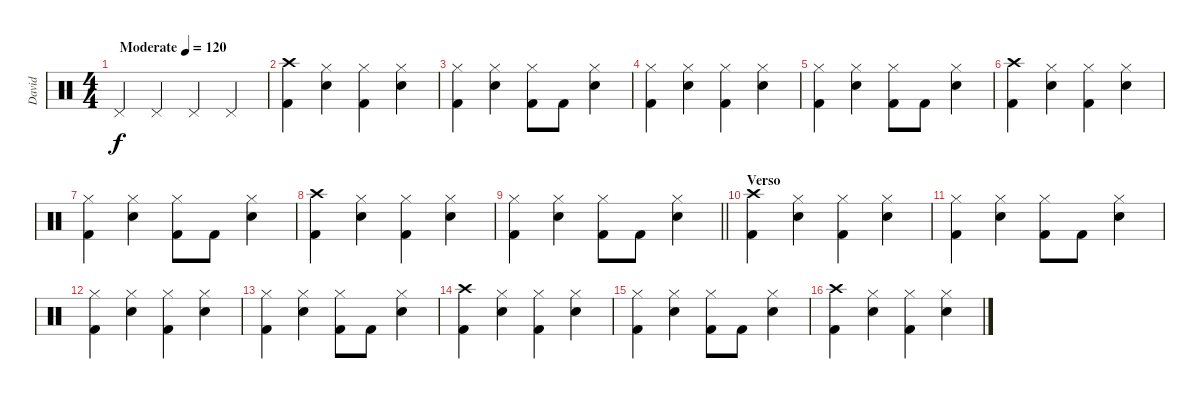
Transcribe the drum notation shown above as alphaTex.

\track ("David" "David") {instrument percussion}
\staff {score}
\articulation defaults
\ts (4 4)
\tempo (120 "Moderate")
\clef neutral
\ks c "Pedal Hi-Hat (hit)".4{dy f} "Pedal Hi-Hat (hit)".4 "Pedal Hi-Hat (hit)".4 "Pedal Hi-Hat (hit)".4
|
("Crash high (hit)" "Kick (hit) 2").4 ("Hi-Hat (closed)" "Snare (hit) 2").4 ("Hi-Hat (closed)" "Kick (hit) 2").4 ("Hi-Hat (closed)" "Snare (hit) 2").4 |
("Hi-Hat (closed)" "Kick (hit) 2").4 ("Hi-Hat (closed)" "Snare (hit) 2").4 ("Hi-Hat (closed)" "Kick (hit) 2").8 "Kick (hit) 2".8 ("Hi-Hat (closed)" "Snare (hit) 2").4 |
("Hi-Hat (closed)" "Kick (hit) 2").4 ("Hi-Hat (closed)" "Snare (hit) 2").4 ("Hi-Hat (closed)" "Kick (hit) 2").4 ("Hi-Hat (closed)" "Snare (hit) 2").4 |
("Hi-Hat (closed)" "Kick (hit) 2").4 ("Hi-Hat (closed)" "Snare (hit) 2").4 ("Hi-Hat (closed)" "Kick (hit) 2").8 "Kick (hit) 2".8 ("Hi-Hat (closed)" "Snare (hit) 2").4 |
("Crash high (hit)" "Kick (hit) 2").4 ("Hi-Hat (closed)" "Snare (hit) 2").4 ("Hi-Hat (closed)" "Kick (hit) 2").4 ("Hi-Hat (closed)" "Snare (hit) 2").4 |
("Hi-Hat (closed)" "Kick (hit) 2").4 ("Hi-Hat (closed)" "Snare (hit) 2").4 ("Hi-Hat (closed)" "Kick (hit) 2").8 "Kick (hit) 2".8 ("Hi-Hat (closed)" "Snare (hit) 2").4 |
("Crash high (hit)" "Kick (hit) 2").4 ("Hi-Hat (closed)" "Snare (hit) 2").4 ("Hi-Hat (closed)" "Kick (hit) 2").4 ("Hi-Hat (closed)" "Snare (hit) 2").4 |
\barLineRight lightlight
("Hi-Hat (closed)" "Kick (hit) 2").4 ("Hi-Hat (closed)" "Snare (hit) 2").4 ("Hi-Hat (closed)" "Kick (hit) 2").8 "Kick (hit) 2".8 ("Hi-Hat (closed)" "Snare (hit) 2").4 |
\section ("" "Verso")
("Crash high (hit)" "Kick (hit) 2").4 ("Hi-Hat (closed)" "Snare (hit) 2").4 ("Hi-Hat (closed)" "Kick (hit) 2").4 ("Hi-Hat (closed)" "Snare (hit) 2").4 |
("Hi-Hat (closed)" "Kick (hit) 2").4 ("Hi-Hat (closed)" "Snare (hit) 2").4 ("Hi-Hat (closed)" "Kick (hit) 2").8 "Kick (hit) 2".8 ("Hi-Hat (closed)" "Snare (hit) 2").4 |
("Hi-Hat (closed)" "Kick (hit) 2").4 ("Hi-Hat (closed)" "Snare (hit) 2").4 ("Hi-Hat (closed)" "Kick (hit) 2").4 ("Hi-Hat (closed)" "Snare (hit) 2").4 |
("Hi-Hat (closed)" "Kick (hit) 2").4 ("Hi-Hat (closed)" "Snare (hit) 2").4 ("Hi-Hat (closed)" "Kick (hit) 2").8 "Kick (hit) 2".8 ("Hi-Hat (closed)" "Snare (hit) 2").4 |
("Crash high (hit)" "Kick (hit) 2").4 ("Hi-Hat (closed)" "Snare (hit) 2").4 ("Hi-Hat (closed)" "Kick (hit) 2").4 ("Hi-Hat (closed)" "Snare (hit) 2").4 |
("Hi-Hat (closed)" "Kick (hit) 2").4 ("Hi-Hat (closed)" "Snare (hit) 2").4 ("Hi-Hat (closed)" "Kick (hit) 2").8 "Kick (hit) 2".8 ("Hi-Hat (closed)" "Snare (hit) 2").4 |
("Crash high (hit)" "Kick (hit) 2").4 ("Hi-Hat (closed)" "Snare (hit) 2").4 ("Hi-Hat (closed)" "Kick (hit) 2").4 ("Hi-Hat (closed)" "Snare (hit) 2").4
